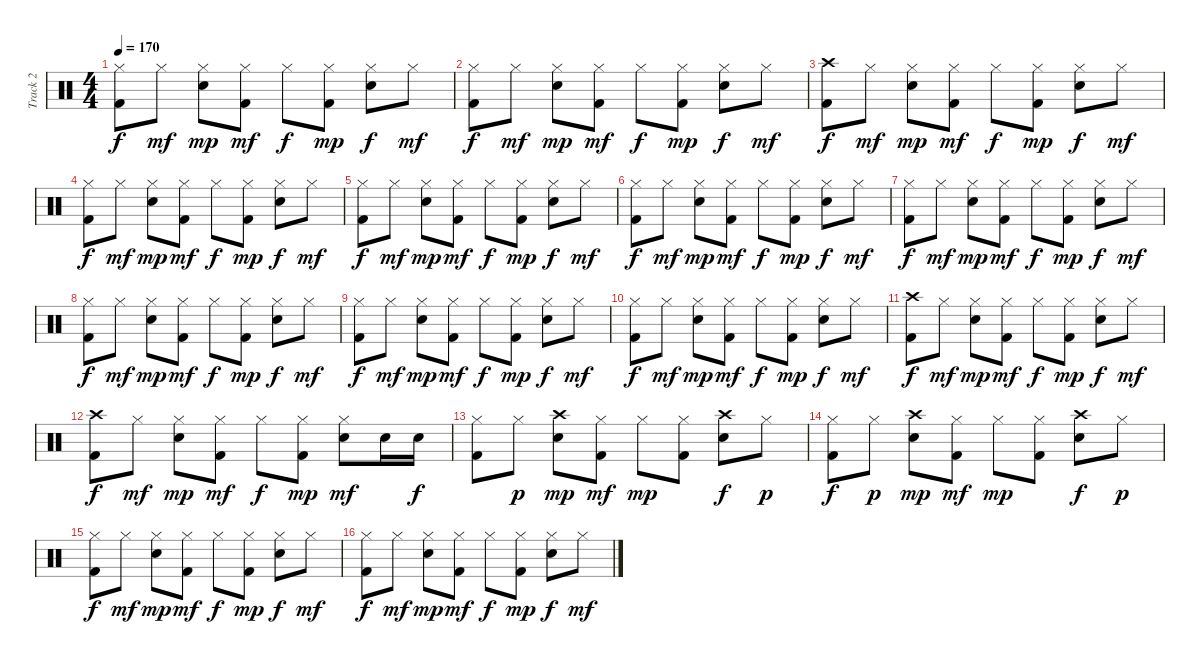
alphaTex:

\track ("Track 2" "Track 2") {instrument percussion}
\staff {score}
\articulation defaults
\ts (4 4)
\tempo 170
\clef neutral
\ks c
("Hi-Hat (closed)" "Kick (hit) 2").8{dy f} "Hi-Hat (closed)".8{dy mf} ("Hi-Hat (closed)" "Electric Snare (hit)").8{dy mp} ("Hi-Hat (closed)" "Kick (hit) 2").8{dy mf} "Hi-Hat (closed)".8{dy f} ("Hi-Hat (closed)" "Kick (hit) 2").8{dy mp} ("Hi-Hat (closed)" "Electric Snare (hit)").8{dy f} "Hi-Hat (closed)".8{dy mf} |
("Hi-Hat (closed)" "Kick (hit) 2").8{dy f} "Hi-Hat (closed)".8{dy mf} ("Hi-Hat (closed)" "Electric Snare (hit)").8{dy mp} ("Hi-Hat (closed)" "Kick (hit) 2").8{dy mf} "Hi-Hat (closed)".8{dy f} ("Hi-Hat (closed)" "Kick (hit) 2").8{dy mp} ("Hi-Hat (closed)" "Electric Snare (hit)").8{dy f} "Hi-Hat (closed)".8{dy mf} |
("Crash high (hit)" "Kick (hit) 2").8{dy f} "Hi-Hat (closed)".8{dy mf} ("Hi-Hat (closed)" "Electric Snare (hit)").8{dy mp} ("Hi-Hat (closed)" "Kick (hit) 2").8{dy mf} "Hi-Hat (closed)".8{dy f} ("Hi-Hat (closed)" "Kick (hit) 2").8{dy mp} ("Hi-Hat (closed)" "Electric Snare (hit)").8{dy f} "Hi-Hat (closed)".8{dy mf} |
("Hi-Hat (closed)" "Kick (hit) 2").8{dy f} "Hi-Hat (closed)".8{dy mf} ("Hi-Hat (closed)" "Electric Snare (hit)").8{dy mp} ("Hi-Hat (closed)" "Kick (hit) 2").8{dy mf} "Hi-Hat (closed)".8{dy f} ("Hi-Hat (closed)" "Kick (hit) 2").8{dy mp} ("Hi-Hat (closed)" "Electric Snare (hit)").8{dy f} "Hi-Hat (closed)".8{dy mf} |
("Hi-Hat (closed)" "Kick (hit) 2").8{dy f} "Hi-Hat (closed)".8{dy mf} ("Hi-Hat (closed)" "Electric Snare (hit)").8{dy mp} ("Hi-Hat (closed)" "Kick (hit) 2").8{dy mf} "Hi-Hat (closed)".8{dy f} ("Hi-Hat (closed)" "Kick (hit) 2").8{dy mp} ("Hi-Hat (closed)" "Electric Snare (hit)").8{dy f} "Hi-Hat (closed)".8{dy mf} |
("Hi-Hat (closed)" "Kick (hit) 2").8{dy f} "Hi-Hat (closed)".8{dy mf} ("Hi-Hat (closed)" "Electric Snare (hit)").8{dy mp} ("Hi-Hat (closed)" "Kick (hit) 2").8{dy mf} "Hi-Hat (closed)".8{dy f} ("Hi-Hat (closed)" "Kick (hit) 2").8{dy mp} ("Hi-Hat (closed)" "Electric Snare (hit)").8{dy f} "Hi-Hat (closed)".8{dy mf} |
("Hi-Hat (closed)" "Kick (hit) 2").8{dy f} "Hi-Hat (closed)".8{dy mf} ("Hi-Hat (closed)" "Electric Snare (hit)").8{dy mp} ("Hi-Hat (closed)" "Kick (hit) 2").8{dy mf} "Hi-Hat (closed)".8{dy f} ("Hi-Hat (closed)" "Kick (hit) 2").8{dy mp} ("Hi-Hat (closed)" "Electric Snare (hit)").8{dy f} "Hi-Hat (closed)".8{dy mf} |
("Hi-Hat (closed)" "Kick (hit) 2").8{dy f} "Hi-Hat (closed)".8{dy mf} ("Hi-Hat (closed)" "Electric Snare (hit)").8{dy mp} ("Hi-Hat (closed)" "Kick (hit) 2").8{dy mf} "Hi-Hat (closed)".8{dy f} ("Hi-Hat (closed)" "Kick (hit) 2").8{dy mp} ("Hi-Hat (closed)" "Electric Snare (hit)").8{dy f} "Hi-Hat (closed)".8{dy mf} |
("Hi-Hat (closed)" "Kick (hit) 2").8{dy f} "Hi-Hat (closed)".8{dy mf} ("Hi-Hat (closed)" "Electric Snare (hit)").8{dy mp} ("Hi-Hat (closed)" "Kick (hit) 2").8{dy mf} "Hi-Hat (closed)".8{dy f} ("Hi-Hat (closed)" "Kick (hit) 2").8{dy mp} ("Hi-Hat (closed)" "Electric Snare (hit)").8{dy f} "Hi-Hat (closed)".8{dy mf} |
("Hi-Hat (closed)" "Kick (hit) 2").8{dy f} "Hi-Hat (closed)".8{dy mf} ("Hi-Hat (closed)" "Electric Snare (hit)").8{dy mp} ("Hi-Hat (closed)" "Kick (hit) 2").8{dy mf} "Hi-Hat (closed)".8{dy f} ("Hi-Hat (closed)" "Kick (hit) 2").8{dy mp} ("Hi-Hat (closed)" "Electric Snare (hit)").8{dy f} "Hi-Hat (closed)".8{dy mf} |
("Crash high (hit)" "Kick (hit) 2").8{dy f} "Hi-Hat (closed)".8{dy mf} ("Hi-Hat (closed)" "Electric Snare (hit)").8{dy mp} ("Hi-Hat (closed)" "Kick (hit) 2").8{dy mf} "Hi-Hat (closed)".8{dy f} ("Hi-Hat (closed)" "Kick (hit) 2").8{dy mp} ("Hi-Hat (closed)" "Electric Snare (hit)").8{dy f} "Hi-Hat (closed)".8{dy mf} |
("Crash high (hit)" "Kick (hit) 2").8{dy f} "Hi-Hat (closed)".8{dy mf} ("Hi-Hat (closed)" "Electric Snare (hit)").8{dy mp} ("Hi-Hat (closed)" "Kick (hit) 2").8{dy mf} "Hi-Hat (closed)".8{dy f} ("Hi-Hat (closed)" "Kick (hit) 2").8{dy mp} ("Hi-Hat (closed)" "Electric Snare (hit)").8{dy mf} "Electric Snare (hit)".16 "Electric Snare (hit)".16{dy f} |
("Hi-Hat (closed)" "Kick (hit) 2").8 "Hi-Hat (closed)".8{dy p} ("Crash high (hit)" "Electric Snare (hit)").8{dy mp} ("Hi-Hat (closed)" "Kick (hit) 2").8{dy mf} "Hi-Hat (closed)".8{dy mp} ("Hi-Hat (closed)" "Kick (hit) 2").8 ("Crash high (hit)" "Electric Snare (hit)").8{dy f} "Hi-Hat (closed)".8{dy p} |
("Hi-Hat (closed)" "Kick (hit) 2").8{dy f} "Hi-Hat (closed)".8{dy p} ("Crash high (hit)" "Electric Snare (hit)").8{dy mp} ("Hi-Hat (closed)" "Kick (hit) 2").8{dy mf} "Hi-Hat (closed)".8{dy mp} ("Hi-Hat (closed)" "Kick (hit) 2").8 ("Crash high (hit)" "Electric Snare (hit)").8{dy f} "Hi-Hat (closed)".8{dy p} |
("Hi-Hat (closed)" "Kick (hit) 2").8{dy f} "Hi-Hat (closed)".8{dy mf} ("Hi-Hat (closed)" "Electric Snare (hit)").8{dy mp} ("Hi-Hat (closed)" "Kick (hit) 2").8{dy mf} "Hi-Hat (closed)".8{dy f} ("Hi-Hat (closed)" "Kick (hit) 2").8{dy mp} ("Hi-Hat (closed)" "Electric Snare (hit)").8{dy f} "Hi-Hat (closed)".8{dy mf} |
("Hi-Hat (closed)" "Kick (hit) 2").8{dy f} "Hi-Hat (closed)".8{dy mf} ("Hi-Hat (closed)" "Electric Snare (hit)").8{dy mp} ("Hi-Hat (closed)" "Kick (hit) 2").8{dy mf} "Hi-Hat (closed)".8{dy f} ("Hi-Hat (closed)" "Kick (hit) 2").8{dy mp} ("Hi-Hat (closed)" "Electric Snare (hit)").8{dy f} "Hi-Hat (closed)".8{dy mf}
